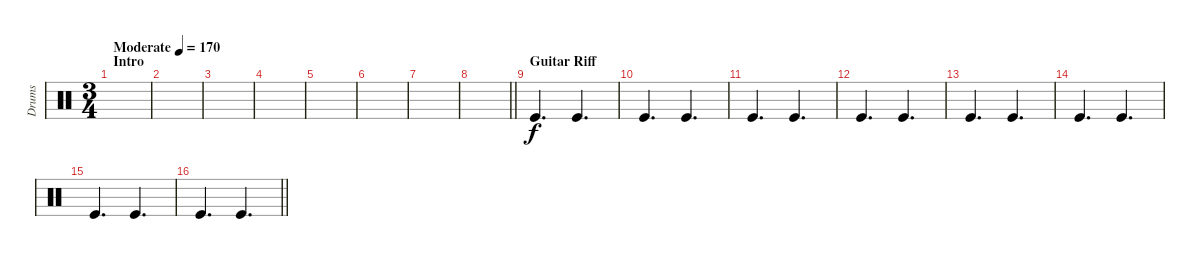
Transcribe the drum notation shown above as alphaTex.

\track ("Drums" "Drums") {instrument percussion}
\staff {score}
\articulation defaults
\ts (3 4)
\section ("" "Intro")
\tempo (170 "Moderate")
\clef neutral
\ks c
|
|
|
|
|
|
|
\barLineRight lightlight
|
\section ("" "Guitar Riff")
"Kick (hit)".4{d} "Kick (hit)".4{d} |
"Kick (hit)".4{d} "Kick (hit)".4{d} |
"Kick (hit)".4{d} "Kick (hit)".4{d} |
"Kick (hit)".4{d} "Kick (hit)".4{d} |
"Kick (hit)".4{d} "Kick (hit)".4{d} |
"Kick (hit)".4{d} "Kick (hit)".4{d} |
"Kick (hit)".4{d} "Kick (hit)".4{d} |
\barLineRight lightlight "Kick (hit)".4{d} "Kick (hit)".4{d}
